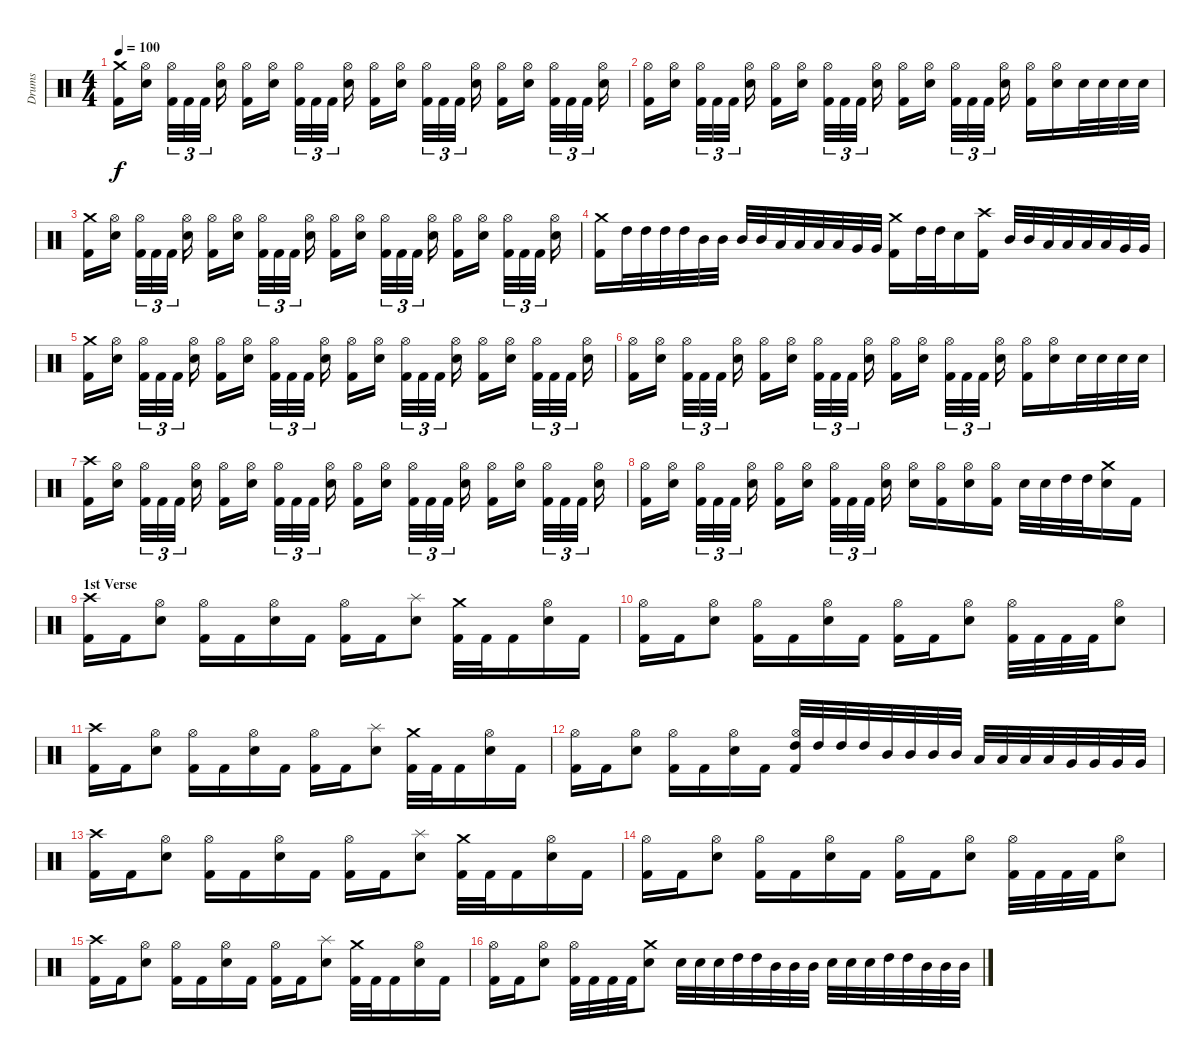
\track ("Drums" "Drums") {instrument percussion}
\staff {score}
\articulation defaults
\ts (4 4)
\tempo 100
\clef neutral
\ks c
("Kick (hit) 2" "Crash medium (hit)").16{dy f} ("Electric Snare (hit)" "Hi-Hat (open)").16 ("Kick (hit) 2" "Hi-Hat (open)").32{tu (3 2)} "Kick (hit) 2".32{tu (3 2)} "Kick (hit) 2".32{tu (3 2)} ("Electric Snare (hit)" "Hi-Hat (open)").16 ("Kick (hit) 2" "Hi-Hat (open)").16 ("Electric Snare (hit)" "Hi-Hat (open)").16 ("Kick (hit) 2" "Hi-Hat (open)").32{tu (3 2)} "Kick (hit) 2".32{tu (3 2)} "Kick (hit) 2".32{tu (3 2)} ("Electric Snare (hit)" "Hi-Hat (open)").16 ("Kick (hit) 2" "Hi-Hat (open)").16 ("Electric Snare (hit)" "Hi-Hat (open)").16 ("Kick (hit) 2" "Hi-Hat (open)").32{tu (3 2)} "Kick (hit) 2".32{tu (3 2)} "Kick (hit) 2".32{tu (3 2)} ("Electric Snare (hit)" "Hi-Hat (open)").16 ("Kick (hit) 2" "Hi-Hat (open)").16 ("Electric Snare (hit)" "Hi-Hat (open)").16 ("Kick (hit) 2" "Hi-Hat (open)").32{tu (3 2)} "Kick (hit) 2".32{tu (3 2)} "Kick (hit) 2".32{tu (3 2)} ("Electric Snare (hit)" "Hi-Hat (open)").16 |
("Kick (hit) 2" "Hi-Hat (open)").16 ("Electric Snare (hit)" "Hi-Hat (open)").16 ("Kick (hit) 2" "Hi-Hat (open)").32{tu (3 2)} "Kick (hit) 2".32{tu (3 2)} "Kick (hit) 2".32{tu (3 2)} ("Electric Snare (hit)" "Hi-Hat (open)").16 ("Kick (hit) 2" "Hi-Hat (open)").16 ("Electric Snare (hit)" "Hi-Hat (open)").16 ("Kick (hit) 2" "Hi-Hat (open)").32{tu (3 2)} "Kick (hit) 2".32{tu (3 2)} "Kick (hit) 2".32{tu (3 2)} ("Electric Snare (hit)" "Hi-Hat (open)").16 ("Kick (hit) 2" "Hi-Hat (open)").16 ("Electric Snare (hit)" "Hi-Hat (open)").16 ("Kick (hit) 2" "Hi-Hat (open)").32{tu (3 2)} "Kick (hit) 2".32{tu (3 2)} "Kick (hit) 2".32{tu (3 2)} ("Electric Snare (hit)" "Hi-Hat (open)").16 ("Kick (hit) 2" "Hi-Hat (open)").16 ("Electric Snare (hit)" "Hi-Hat (open)").16 "Electric Snare (hit)".32 "Electric Snare (hit)".32 "Electric Snare (hit)".32 "Electric Snare (hit)".32 |
("Kick (hit) 2" "Crash medium (hit)").16 ("Electric Snare (hit)" "Hi-Hat (open)").16 ("Kick (hit) 2" "Hi-Hat (open)").32{tu (3 2)} "Kick (hit) 2".32{tu (3 2)} "Kick (hit) 2".32{tu (3 2)} ("Electric Snare (hit)" "Hi-Hat (open)").16 ("Kick (hit) 2" "Hi-Hat (open)").16 ("Electric Snare (hit)" "Hi-Hat (open)").16 ("Kick (hit) 2" "Hi-Hat (open)").32{tu (3 2)} "Kick (hit) 2".32{tu (3 2)} "Kick (hit) 2".32{tu (3 2)} ("Electric Snare (hit)" "Hi-Hat (open)").16 ("Kick (hit) 2" "Hi-Hat (open)").16 ("Electric Snare (hit)" "Hi-Hat (open)").16 ("Kick (hit) 2" "Hi-Hat (open)").32{tu (3 2)} "Kick (hit) 2".32{tu (3 2)} "Kick (hit) 2".32{tu (3 2)} ("Electric Snare (hit)" "Hi-Hat (open)").16 ("Kick (hit) 2" "Hi-Hat (open)").16 ("Electric Snare (hit)" "Hi-Hat (open)").16 ("Kick (hit) 2" "Hi-Hat (open)").32{tu (3 2)} "Kick (hit) 2".32{tu (3 2)} "Kick (hit) 2".32{tu (3 2)} ("Electric Snare (hit)" "Hi-Hat (open)").16 |
("Kick (hit) 2" "Crash medium (hit)").16 "High Tom (hit)".32 "High Tom (hit)".32 "High Tom (hit)".32 "High Tom (hit)".32 "Mid Tom (hit)".32 "Mid Tom (hit)".32 "Mid Tom (hit)".32 "Mid Tom (hit)".32 "Low Tom (hit)".32 "Low Tom (hit)".32 "Low Tom (hit)".32 "Low Tom (hit)".32 "Very Low Tom (hit)".32 "Very Low Tom (hit)".32 ("Kick (hit) 2" "Crash medium (hit)").16 "High Tom (hit)".32 "High Tom (hit)".32 "Electric Snare (hit)".16 ("Kick (hit) 2" "Crash high (hit)").16 "Mid Tom (hit)".32 "Mid Tom (hit)".32 "Low Tom (hit)".32 "Low Tom (hit)".32 "Low Tom (hit)".32 "Low Tom (hit)".32 "Very Low Tom (hit)".32 "Very Low Tom (hit)".32 |
("Kick (hit) 2" "Crash medium (hit)").16 ("Electric Snare (hit)" "Hi-Hat (open)").16 ("Kick (hit) 2" "Hi-Hat (open)").32{tu (3 2)} "Kick (hit) 2".32{tu (3 2)} "Kick (hit) 2".32{tu (3 2)} ("Electric Snare (hit)" "Hi-Hat (open)").16 ("Kick (hit) 2" "Hi-Hat (open)").16 ("Electric Snare (hit)" "Hi-Hat (open)").16 ("Kick (hit) 2" "Hi-Hat (open)").32{tu (3 2)} "Kick (hit) 2".32{tu (3 2)} "Kick (hit) 2".32{tu (3 2)} ("Electric Snare (hit)" "Hi-Hat (open)").16 ("Kick (hit) 2" "Hi-Hat (open)").16 ("Electric Snare (hit)" "Hi-Hat (open)").16 ("Kick (hit) 2" "Hi-Hat (open)").32{tu (3 2)} "Kick (hit) 2".32{tu (3 2)} "Kick (hit) 2".32{tu (3 2)} ("Electric Snare (hit)" "Hi-Hat (open)").16 ("Kick (hit) 2" "Hi-Hat (open)").16 ("Electric Snare (hit)" "Hi-Hat (open)").16 ("Kick (hit) 2" "Hi-Hat (open)").32{tu (3 2)} "Kick (hit) 2".32{tu (3 2)} "Kick (hit) 2".32{tu (3 2)} ("Electric Snare (hit)" "Hi-Hat (open)").16 |
("Kick (hit) 2" "Hi-Hat (open)").16 ("Electric Snare (hit)" "Hi-Hat (open)").16 ("Kick (hit) 2" "Hi-Hat (open)").32{tu (3 2)} "Kick (hit) 2".32{tu (3 2)} "Kick (hit) 2".32{tu (3 2)} ("Electric Snare (hit)" "Hi-Hat (open)").16 ("Kick (hit) 2" "Hi-Hat (open)").16 ("Electric Snare (hit)" "Hi-Hat (open)").16 ("Kick (hit) 2" "Hi-Hat (open)").32{tu (3 2)} "Kick (hit) 2".32{tu (3 2)} "Kick (hit) 2".32{tu (3 2)} ("Electric Snare (hit)" "Hi-Hat (open)").16 ("Kick (hit) 2" "Hi-Hat (open)").16 ("Electric Snare (hit)" "Hi-Hat (open)").16 ("Kick (hit) 2" "Hi-Hat (open)").32{tu (3 2)} "Kick (hit) 2".32{tu (3 2)} "Kick (hit) 2".32{tu (3 2)} ("Electric Snare (hit)" "Hi-Hat (open)").16 ("Kick (hit) 2" "Hi-Hat (open)").16 ("Electric Snare (hit)" "Hi-Hat (open)").16 "Electric Snare (hit)".32 "Electric Snare (hit)".32 "Electric Snare (hit)".32 "Electric Snare (hit)".32 |
("Kick (hit) 2" "Crash high (hit)").16 ("Electric Snare (hit)" "Hi-Hat (open)").16 ("Kick (hit) 2" "Hi-Hat (open)").32{tu (3 2)} "Kick (hit) 2".32{tu (3 2)} "Kick (hit) 2".32{tu (3 2)} ("Electric Snare (hit)" "Hi-Hat (open)").16 ("Kick (hit) 2" "Hi-Hat (open)").16 ("Electric Snare (hit)" "Hi-Hat (open)").16 ("Kick (hit) 2" "Hi-Hat (open)").32{tu (3 2)} "Kick (hit) 2".32{tu (3 2)} "Kick (hit) 2".32{tu (3 2)} ("Electric Snare (hit)" "Hi-Hat (open)").16 ("Kick (hit) 2" "Hi-Hat (open)").16 ("Electric Snare (hit)" "Hi-Hat (open)").16 ("Kick (hit) 2" "Hi-Hat (open)").32{tu (3 2)} "Kick (hit) 2".32{tu (3 2)} "Kick (hit) 2".32{tu (3 2)} ("Electric Snare (hit)" "Hi-Hat (open)").16 ("Kick (hit) 2" "Hi-Hat (open)").16 ("Electric Snare (hit)" "Hi-Hat (open)").16 ("Kick (hit) 2" "Hi-Hat (open)").32{tu (3 2)} "Kick (hit) 2".32{tu (3 2)} "Kick (hit) 2".32{tu (3 2)} ("Electric Snare (hit)" "Hi-Hat (open)").16 |
("Kick (hit) 2" "Hi-Hat (open)").16 ("Electric Snare (hit)" "Hi-Hat (open)").16 ("Kick (hit) 2" "Hi-Hat (open)").32{tu (3 2)} "Kick (hit) 2".32{tu (3 2)} "Kick (hit) 2".32{tu (3 2)} ("Electric Snare (hit)" "Hi-Hat (open)").16 ("Kick (hit) 2" "Hi-Hat (open)").16 ("Electric Snare (hit)" "Hi-Hat (open)").16 ("Kick (hit) 2" "Hi-Hat (open)").32{tu (3 2)} "Kick (hit) 2".32{tu (3 2)} "Kick (hit) 2".32{tu (3 2)} ("Electric Snare (hit)" "Hi-Hat (open)").16 ("Electric Snare (hit)" "Hi-Hat (open)").16 ("Kick (hit) 2" "Hi-Hat (open)").16 ("Electric Snare (hit)" "Hi-Hat (open)").16 ("Kick (hit) 2" "Hi-Hat (open)").16 "Electric Snare (hit)".32 "Electric Snare (hit)".32 "High Tom (hit)".32 "High Tom (hit)".32 ("Electric Snare (hit)" "Crash medium (hit)").16 "Kick (hit) 2".16 |
\section ("" "1st Verse")
("Kick (hit) 2" "Crash high (hit)").16 "Kick (hit) 2".16 ("Electric Snare (hit)" "Hi-Hat (open)").8 ("Kick (hit) 2" "Hi-Hat (open)").16 "Kick (hit) 2".16 ("Electric Snare (hit)" "Hi-Hat (open)").16 "Kick (hit) 2".16 ("Kick (hit) 2" "Hi-Hat (open)").16 "Kick (hit) 2".16 ("Electric Snare (hit)" "Splash (hit)").8 ("Kick (hit) 2" "Crash medium (hit)").32 "Kick (hit) 2".32 "Kick (hit) 2".16 ("Electric Snare (hit)" "Hi-Hat (open)").16 "Kick (hit) 2".16 |
("Kick (hit) 2" "Hi-Hat (open)").16 "Kick (hit) 2".16 ("Electric Snare (hit)" "Hi-Hat (open)").8 ("Kick (hit) 2" "Hi-Hat (open)").16 "Kick (hit) 2".16 ("Electric Snare (hit)" "Hi-Hat (open)").16 "Kick (hit) 2".16 ("Kick (hit) 2" "Hi-Hat (open)").16 "Kick (hit) 2".16 ("Electric Snare (hit)" "Hi-Hat (open)").8 ("Kick (hit) 2" "Hi-Hat (open)").32 "Kick (hit) 2".32 "Kick (hit) 2".32 "Kick (hit) 2".32 ("Electric Snare (hit)" "Hi-Hat (open)").8 |
("Kick (hit) 2" "Crash high (hit)").16 "Kick (hit) 2".16 ("Electric Snare (hit)" "Hi-Hat (open)").8 ("Kick (hit) 2" "Hi-Hat (open)").16 "Kick (hit) 2".16 ("Electric Snare (hit)" "Hi-Hat (open)").16 "Kick (hit) 2".16 ("Kick (hit) 2" "Hi-Hat (open)").16 "Kick (hit) 2".16 ("Electric Snare (hit)" "Splash (hit)").8 ("Kick (hit) 2" "Crash medium (hit)").32 "Kick (hit) 2".32 "Kick (hit) 2".16 ("Electric Snare (hit)" "Hi-Hat (open)").16 "Kick (hit) 2".16 |
("Kick (hit) 2" "Hi-Hat (open)").16 "Kick (hit) 2".16 ("Electric Snare (hit)" "Hi-Hat (open)").8 ("Kick (hit) 2" "Hi-Hat (open)").16 "Kick (hit) 2".16 ("Electric Snare (hit)" "Hi-Hat (open)").16 "Kick (hit) 2".16 ("Kick (hit) 2" "High Tom (hit)" "Hi-Hat (open)").32 "High Tom (hit)".32 "High Tom (hit)".32 "High Tom (hit)".32 "Mid Tom (hit)".32 "Mid Tom (hit)".32 "Mid Tom (hit)".32 "Mid Tom (hit)".32 "Low Tom (hit)".32 "Low Tom (hit)".32 "Low Tom (hit)".32 "Low Tom (hit)".32 "Very Low Tom (hit)".32 "Very Low Tom (hit)".32 "Very Low Tom (hit)".32 "Very Low Tom (hit)".32 |
("Kick (hit) 2" "Crash high (hit)").16 "Kick (hit) 2".16 ("Electric Snare (hit)" "Hi-Hat (open)").8 ("Kick (hit) 2" "Hi-Hat (open)").16 "Kick (hit) 2".16 ("Electric Snare (hit)" "Hi-Hat (open)").16 "Kick (hit) 2".16 ("Kick (hit) 2" "Hi-Hat (open)").16 "Kick (hit) 2".16 ("Electric Snare (hit)" "Splash (hit)").8 ("Kick (hit) 2" "Crash medium (hit)").32 "Kick (hit) 2".32 "Kick (hit) 2".16 ("Electric Snare (hit)" "Hi-Hat (open)").16 "Kick (hit) 2".16 |
("Kick (hit) 2" "Hi-Hat (open)").16 "Kick (hit) 2".16 ("Electric Snare (hit)" "Hi-Hat (open)").8 ("Kick (hit) 2" "Hi-Hat (open)").16 "Kick (hit) 2".16 ("Electric Snare (hit)" "Hi-Hat (open)").16 "Kick (hit) 2".16 ("Kick (hit) 2" "Hi-Hat (open)").16 "Kick (hit) 2".16 ("Electric Snare (hit)" "Hi-Hat (open)").8 ("Kick (hit) 2" "Hi-Hat (open)").32 "Kick (hit) 2".32 "Kick (hit) 2".32 "Kick (hit) 2".32 ("Electric Snare (hit)" "Hi-Hat (open)").8 |
("Kick (hit) 2" "Crash high (hit)").16 "Kick (hit) 2".16 ("Electric Snare (hit)" "Hi-Hat (open)").8 ("Kick (hit) 2" "Hi-Hat (open)").16 "Kick (hit) 2".16 ("Electric Snare (hit)" "Hi-Hat (open)").16 "Kick (hit) 2".16 ("Kick (hit) 2" "Hi-Hat (open)").16 "Kick (hit) 2".16 ("Electric Snare (hit)" "Splash (hit)").8 ("Kick (hit) 2" "Crash medium (hit)").32 "Kick (hit) 2".32 "Kick (hit) 2".16 ("Electric Snare (hit)" "Hi-Hat (open)").16 "Kick (hit) 2".16 |
("Kick (hit) 2" "Hi-Hat (open)").16 "Kick (hit) 2".16 ("Electric Snare (hit)" "Hi-Hat (open)").8 ("Kick (hit) 2" "Hi-Hat (open)").32 "Kick (hit) 2".32 "Kick (hit) 2".32 "Kick (hit) 2".32 ("Electric Snare (hit)" "Crash medium (hit)").8 "Electric Snare (hit)".32 "Electric Snare (hit)".32 "Electric Snare (hit)".32 "High Tom (hit)".32 "High Tom (hit)".32 "Mid Tom (hit)".32 "Mid Tom (hit)".32 "Mid Tom (hit)".32 "Electric Snare (hit)".32 "Electric Snare (hit)".32 "Electric Snare (hit)".32 "High Tom (hit)".32 "High Tom (hit)".32 "Mid Tom (hit)".32 "Mid Tom (hit)".32 "Mid Tom (hit)".32
